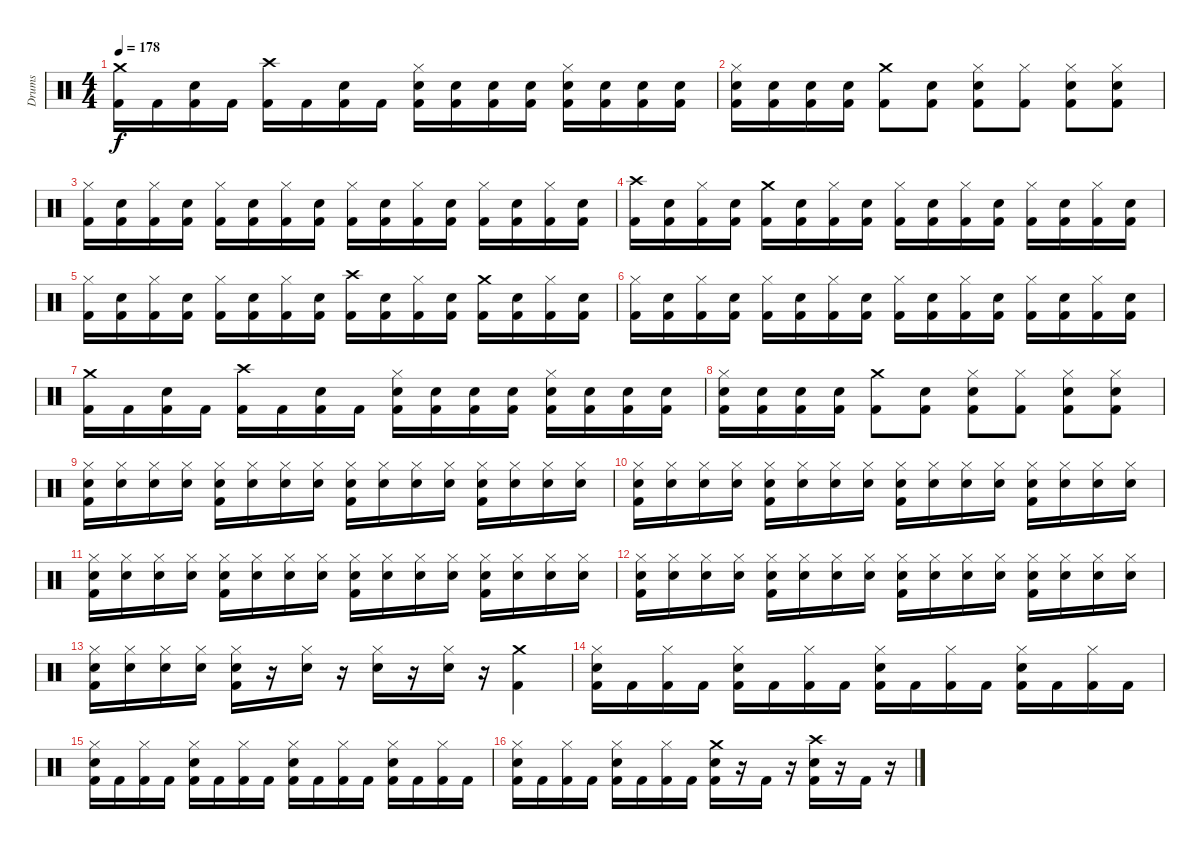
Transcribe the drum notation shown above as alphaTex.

\track ("Drums" "Drums") {instrument percussion}
\staff {score}
\articulation defaults
\ts (4 4)
\tempo 178
\clef neutral
\ks c
("Crash medium (hit)" "Kick (hit) 2").16{dy f} "Kick (hit) 2".16 ("Electric Snare (hit)" "Kick (hit) 2").16 "Kick (hit) 2".16 ("Crash high (hit)" "Kick (hit) 2").16 "Kick (hit) 2".16 ("Electric Snare (hit)" "Kick (hit) 2").16 "Kick (hit) 2".16 ("Hi-Hat (closed)" "Electric Snare (hit)" "Kick (hit) 2").16 ("Electric Snare (hit)" "Kick (hit) 2").16 ("Electric Snare (hit)" "Kick (hit) 2").16 ("Electric Snare (hit)" "Kick (hit) 2").16 ("Hi-Hat (closed)" "Electric Snare (hit)" "Kick (hit) 2").16 ("Electric Snare (hit)" "Kick (hit) 2").16 ("Electric Snare (hit)" "Kick (hit) 2").16 ("Electric Snare (hit)" "Kick (hit) 2").16 |
("Hi-Hat (closed)" "Electric Snare (hit)" "Kick (hit) 2").16 ("Electric Snare (hit)" "Kick (hit) 2").16 ("Electric Snare (hit)" "Kick (hit) 2").16 ("Electric Snare (hit)" "Kick (hit) 2").16 ("Crash medium (hit)" "Kick (hit) 2").8 ("Electric Snare (hit)" "Kick (hit) 2").8 ("Hi-Hat (closed)" "Electric Snare (hit)" "Kick (hit) 2").8 ("Hi-Hat (closed)" "Kick (hit) 2").8 ("Hi-Hat (closed)" "Electric Snare (hit)" "Kick (hit) 2").8 ("Hi-Hat (closed)" "Electric Snare (hit)" "Kick (hit) 2").8 |
("Hi-Hat (closed)" "Kick (hit) 2").16 ("Electric Snare (hit)" "Kick (hit) 2").16 ("Hi-Hat (closed)" "Kick (hit) 2").16 ("Electric Snare (hit)" "Kick (hit) 2").16 ("Hi-Hat (closed)" "Kick (hit) 2").16 ("Electric Snare (hit)" "Kick (hit) 2").16 ("Hi-Hat (closed)" "Kick (hit) 2").16 ("Electric Snare (hit)" "Kick (hit) 2").16 ("Hi-Hat (closed)" "Kick (hit) 2").16 ("Electric Snare (hit)" "Kick (hit) 2").16 ("Hi-Hat (closed)" "Kick (hit) 2").16 ("Electric Snare (hit)" "Kick (hit) 2").16 ("Hi-Hat (closed)" "Kick (hit) 2").16 ("Electric Snare (hit)" "Kick (hit) 2").16 ("Hi-Hat (closed)" "Kick (hit) 2").16 ("Electric Snare (hit)" "Kick (hit) 2").16 |
("Crash high (hit)" "Kick (hit) 2").16 ("Electric Snare (hit)" "Kick (hit) 2").16 ("Hi-Hat (closed)" "Kick (hit) 2").16 ("Electric Snare (hit)" "Kick (hit) 2").16 ("Crash medium (hit)" "Kick (hit) 2").16 ("Electric Snare (hit)" "Kick (hit) 2").16 ("Hi-Hat (closed)" "Kick (hit) 2").16 ("Electric Snare (hit)" "Kick (hit) 2").16 ("Hi-Hat (closed)" "Kick (hit) 2").16 ("Electric Snare (hit)" "Kick (hit) 2").16 ("Hi-Hat (closed)" "Kick (hit) 2").16 ("Electric Snare (hit)" "Kick (hit) 2").16 ("Hi-Hat (closed)" "Kick (hit) 2").16 ("Electric Snare (hit)" "Kick (hit) 2").16 ("Hi-Hat (closed)" "Kick (hit) 2").16 ("Electric Snare (hit)" "Kick (hit) 2").16 |
("Hi-Hat (closed)" "Kick (hit) 2").16 ("Electric Snare (hit)" "Kick (hit) 2").16 ("Hi-Hat (closed)" "Kick (hit) 2").16 ("Electric Snare (hit)" "Kick (hit) 2").16 ("Hi-Hat (closed)" "Kick (hit) 2").16 ("Electric Snare (hit)" "Kick (hit) 2").16 ("Hi-Hat (closed)" "Kick (hit) 2").16 ("Electric Snare (hit)" "Kick (hit) 2").16 ("Crash high (hit)" "Kick (hit) 2").16 ("Electric Snare (hit)" "Kick (hit) 2").16 ("Hi-Hat (closed)" "Kick (hit) 2").16 ("Electric Snare (hit)" "Kick (hit) 2").16 ("Crash medium (hit)" "Kick (hit) 2").16 ("Electric Snare (hit)" "Kick (hit) 2").16 ("Hi-Hat (closed)" "Kick (hit) 2").16 ("Electric Snare (hit)" "Kick (hit) 2").16 |
("Hi-Hat (closed)" "Kick (hit) 2").16 ("Electric Snare (hit)" "Kick (hit) 2").16 ("Hi-Hat (closed)" "Kick (hit) 2").16 ("Electric Snare (hit)" "Kick (hit) 2").16 ("Hi-Hat (closed)" "Kick (hit) 2").16 ("Electric Snare (hit)" "Kick (hit) 2").16 ("Hi-Hat (closed)" "Kick (hit) 2").16 ("Electric Snare (hit)" "Kick (hit) 2").16 ("Hi-Hat (closed)" "Kick (hit) 2").16 ("Electric Snare (hit)" "Kick (hit) 2").16 ("Hi-Hat (closed)" "Kick (hit) 2").16 ("Electric Snare (hit)" "Kick (hit) 2").16 ("Hi-Hat (closed)" "Kick (hit) 2").16 ("Electric Snare (hit)" "Kick (hit) 2").16 ("Hi-Hat (closed)" "Kick (hit) 2").16 ("Electric Snare (hit)" "Kick (hit) 2").16 |
("Crash medium (hit)" "Kick (hit) 2").16 "Kick (hit) 2".16 ("Electric Snare (hit)" "Kick (hit) 2").16 "Kick (hit) 2".16 ("Crash high (hit)" "Kick (hit) 2").16 "Kick (hit) 2".16 ("Electric Snare (hit)" "Kick (hit) 2").16 "Kick (hit) 2".16 ("Hi-Hat (closed)" "Electric Snare (hit)" "Kick (hit) 2").16 ("Electric Snare (hit)" "Kick (hit) 2").16 ("Electric Snare (hit)" "Kick (hit) 2").16 ("Electric Snare (hit)" "Kick (hit) 2").16 ("Hi-Hat (closed)" "Electric Snare (hit)" "Kick (hit) 2").16 ("Electric Snare (hit)" "Kick (hit) 2").16 ("Electric Snare (hit)" "Kick (hit) 2").16 ("Electric Snare (hit)" "Kick (hit) 2").16 |
("Hi-Hat (closed)" "Electric Snare (hit)" "Kick (hit) 2").16 ("Electric Snare (hit)" "Kick (hit) 2").16 ("Electric Snare (hit)" "Kick (hit) 2").16 ("Electric Snare (hit)" "Kick (hit) 2").16 ("Crash medium (hit)" "Kick (hit) 2").8 ("Electric Snare (hit)" "Kick (hit) 2").8 ("Hi-Hat (closed)" "Electric Snare (hit)" "Kick (hit) 2").8 ("Hi-Hat (closed)" "Kick (hit) 2").8 ("Hi-Hat (closed)" "Electric Snare (hit)" "Kick (hit) 2").8 ("Hi-Hat (closed)" "Electric Snare (hit)" "Kick (hit) 2").8 |
("Hi-Hat (closed)" "Electric Snare (hit)" "Kick (hit) 2").16 ("Hi-Hat (closed)" "Electric Snare (hit)").16 ("Hi-Hat (closed)" "Electric Snare (hit)").16 ("Hi-Hat (closed)" "Electric Snare (hit)").16 ("Hi-Hat (closed)" "Electric Snare (hit)" "Kick (hit) 2").16 ("Hi-Hat (closed)" "Electric Snare (hit)").16 ("Hi-Hat (closed)" "Electric Snare (hit)").16 ("Hi-Hat (closed)" "Electric Snare (hit)").16 ("Hi-Hat (closed)" "Electric Snare (hit)" "Kick (hit) 2").16 ("Hi-Hat (closed)" "Electric Snare (hit)").16 ("Hi-Hat (closed)" "Electric Snare (hit)").16 ("Hi-Hat (closed)" "Electric Snare (hit)").16 ("Hi-Hat (closed)" "Electric Snare (hit)" "Kick (hit) 2").16 ("Hi-Hat (closed)" "Electric Snare (hit)").16 ("Hi-Hat (closed)" "Electric Snare (hit)").16 ("Hi-Hat (closed)" "Electric Snare (hit)").16 |
("Hi-Hat (closed)" "Electric Snare (hit)" "Kick (hit) 2").16 ("Hi-Hat (closed)" "Electric Snare (hit)").16 ("Hi-Hat (closed)" "Electric Snare (hit)").16 ("Hi-Hat (closed)" "Electric Snare (hit)").16 ("Hi-Hat (closed)" "Electric Snare (hit)" "Kick (hit) 2").16 ("Hi-Hat (closed)" "Electric Snare (hit)").16 ("Hi-Hat (closed)" "Electric Snare (hit)").16 ("Hi-Hat (closed)" "Electric Snare (hit)").16 ("Hi-Hat (closed)" "Electric Snare (hit)" "Kick (hit) 2").16 ("Hi-Hat (closed)" "Electric Snare (hit)").16 ("Hi-Hat (closed)" "Electric Snare (hit)").16 ("Hi-Hat (closed)" "Electric Snare (hit)").16 ("Hi-Hat (closed)" "Electric Snare (hit)" "Kick (hit) 2").16 ("Hi-Hat (closed)" "Electric Snare (hit)").16 ("Hi-Hat (closed)" "Electric Snare (hit)").16 ("Hi-Hat (closed)" "Electric Snare (hit)").16 |
("Hi-Hat (closed)" "Electric Snare (hit)" "Kick (hit) 2").16 ("Hi-Hat (closed)" "Electric Snare (hit)").16 ("Hi-Hat (closed)" "Electric Snare (hit)").16 ("Hi-Hat (closed)" "Electric Snare (hit)").16 ("Hi-Hat (closed)" "Electric Snare (hit)" "Kick (hit) 2").16 ("Hi-Hat (closed)" "Electric Snare (hit)").16 ("Hi-Hat (closed)" "Electric Snare (hit)").16 ("Hi-Hat (closed)" "Electric Snare (hit)").16 ("Hi-Hat (closed)" "Electric Snare (hit)" "Kick (hit) 2").16 ("Hi-Hat (closed)" "Electric Snare (hit)").16 ("Hi-Hat (closed)" "Electric Snare (hit)").16 ("Hi-Hat (closed)" "Electric Snare (hit)").16 ("Hi-Hat (closed)" "Electric Snare (hit)" "Kick (hit) 2").16 ("Hi-Hat (closed)" "Electric Snare (hit)").16 ("Hi-Hat (closed)" "Electric Snare (hit)").16 ("Hi-Hat (closed)" "Electric Snare (hit)").16 |
("Hi-Hat (closed)" "Electric Snare (hit)" "Kick (hit) 2").16 ("Hi-Hat (closed)" "Electric Snare (hit)").16 ("Hi-Hat (closed)" "Electric Snare (hit)").16 ("Hi-Hat (closed)" "Electric Snare (hit)").16 ("Hi-Hat (closed)" "Electric Snare (hit)" "Kick (hit) 2").16 ("Hi-Hat (closed)" "Electric Snare (hit)").16 ("Hi-Hat (closed)" "Electric Snare (hit)").16 ("Hi-Hat (closed)" "Electric Snare (hit)").16 ("Hi-Hat (closed)" "Electric Snare (hit)" "Kick (hit) 2").16 ("Hi-Hat (closed)" "Electric Snare (hit)").16 ("Hi-Hat (closed)" "Electric Snare (hit)").16 ("Hi-Hat (closed)" "Electric Snare (hit)").16 ("Hi-Hat (closed)" "Electric Snare (hit)" "Kick (hit) 2").16 ("Hi-Hat (closed)" "Electric Snare (hit)").16 ("Hi-Hat (closed)" "Electric Snare (hit)").16 ("Hi-Hat (closed)" "Electric Snare (hit)").16 |
("Hi-Hat (closed)" "Electric Snare (hit)" "Kick (hit) 2").16 ("Hi-Hat (closed)" "Electric Snare (hit)").16 ("Hi-Hat (closed)" "Electric Snare (hit)").16 ("Hi-Hat (closed)" "Electric Snare (hit)").16 ("Hi-Hat (closed)" "Electric Snare (hit)" "Kick (hit) 2").16 r.16 ("Hi-Hat (closed)" "Electric Snare (hit)").16 r.16 ("Hi-Hat (closed)" "Electric Snare (hit)").16 r.16 ("Hi-Hat (closed)" "Electric Snare (hit)").16 r.16 ("Crash medium (hit)" "Kick (hit) 2").4 |
("Hi-Hat (closed)" "Electric Snare (hit)" "Kick (hit) 2").16 "Kick (hit) 2".16 ("Hi-Hat (closed)" "Kick (hit) 2").16 "Kick (hit) 2".16 ("Hi-Hat (closed)" "Electric Snare (hit)" "Kick (hit) 2").16 "Kick (hit) 2".16 ("Hi-Hat (closed)" "Kick (hit) 2").16 "Kick (hit) 2".16 ("Hi-Hat (closed)" "Electric Snare (hit)" "Kick (hit) 2").16 "Kick (hit) 2".16 ("Hi-Hat (closed)" "Kick (hit) 2").16 "Kick (hit) 2".16 ("Hi-Hat (closed)" "Electric Snare (hit)" "Kick (hit) 2").16 "Kick (hit) 2".16 ("Hi-Hat (closed)" "Kick (hit) 2").16 "Kick (hit) 2".16 |
("Hi-Hat (closed)" "Electric Snare (hit)" "Kick (hit) 2").16 "Kick (hit) 2".16 ("Hi-Hat (closed)" "Kick (hit) 2").16 "Kick (hit) 2".16 ("Hi-Hat (closed)" "Electric Snare (hit)" "Kick (hit) 2").16 "Kick (hit) 2".16 ("Hi-Hat (closed)" "Kick (hit) 2").16 "Kick (hit) 2".16 ("Hi-Hat (closed)" "Electric Snare (hit)" "Kick (hit) 2").16 "Kick (hit) 2".16 ("Hi-Hat (closed)" "Kick (hit) 2").16 "Kick (hit) 2".16 ("Hi-Hat (closed)" "Electric Snare (hit)" "Kick (hit) 2").16 "Kick (hit) 2".16 ("Hi-Hat (closed)" "Kick (hit) 2").16 "Kick (hit) 2".16 |
("Hi-Hat (closed)" "Electric Snare (hit)" "Kick (hit) 2").16 "Kick (hit) 2".16 ("Hi-Hat (closed)" "Kick (hit) 2").16 "Kick (hit) 2".16 ("Hi-Hat (closed)" "Electric Snare (hit)" "Kick (hit) 2").16 "Kick (hit) 2".16 ("Hi-Hat (closed)" "Kick (hit) 2").16 "Kick (hit) 2".16 ("Crash medium (hit)" "Electric Snare (hit)" "Kick (hit) 2").16 r.16 "Kick (hit) 2".16 r.16 ("Crash high (hit)" "Electric Snare (hit)" "Kick (hit) 2").16 r.16 "Kick (hit) 2".16 r.16
